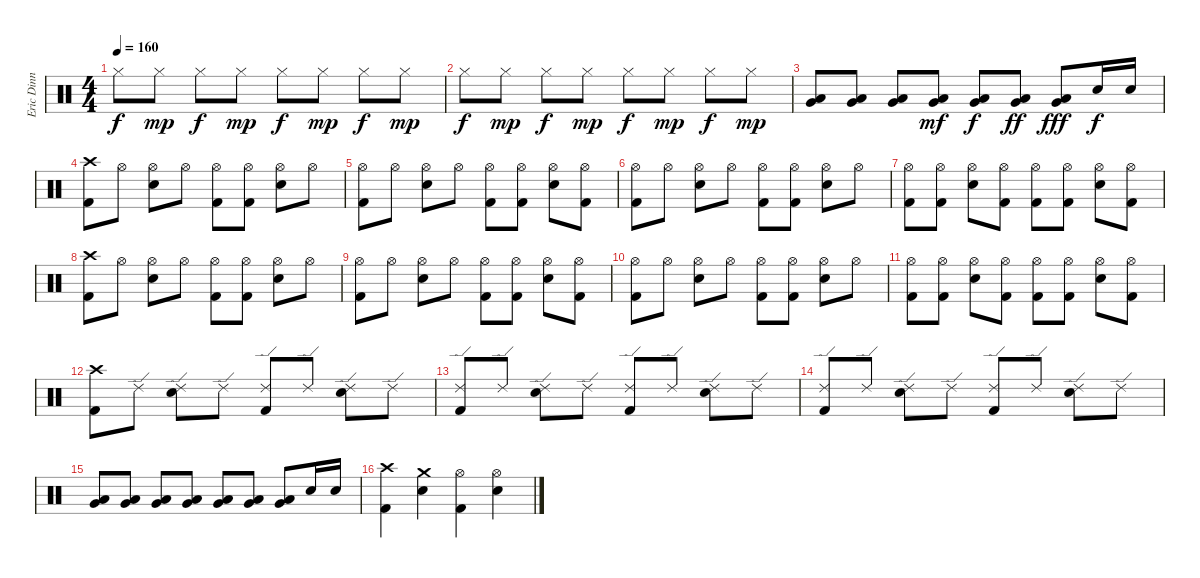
\track ("Eric Dinn" "Eric Dinn") {instrument percussion}
\staff {score}
\articulation defaults
\ts (4 4)
\tempo 160
\clef neutral
\ks c "Hi-Hat (closed)".8{dy f} "Hi-Hat (closed)".8{dy mp} "Hi-Hat (closed)".8{dy f} "Hi-Hat (closed)".8{dy mp} "Hi-Hat (closed)".8{dy f} "Hi-Hat (closed)".8{dy mp} "Hi-Hat (closed)".8{dy f} "Hi-Hat (closed)".8{dy mp}
|
"Hi-Hat (closed)".8{dy f} "Hi-Hat (closed)".8{dy mp} "Hi-Hat (closed)".8{dy f} "Hi-Hat (closed)".8{dy mp} "Hi-Hat (closed)".8{dy f} "Hi-Hat (closed)".8{dy mp} "Hi-Hat (closed)".8{dy f} "Hi-Hat (closed)".8{dy mp} |
("Very Low Tom (hit)" "Low Tom (hit)").8 ("Very Low Tom (hit)" "Low Tom (hit)").8 ("Very Low Tom (hit)" "Low Tom (hit)").8 ("Very Low Tom (hit)" "Low Tom (hit)").8{dy mf} ("Very Low Tom (hit)" "Low Tom (hit)").8{dy f} ("Very Low Tom (hit)" "Low Tom (hit)").8{dy ff} ("Very Low Tom (hit)" "Low Tom (hit)").8{dy fff} "Snare (hit) 2".16{dy f} "Snare (hit) 2".16 |
("Crash high (hit)" "Kick (hit) 2").8 "Hi-Hat (open)".8 ("Hi-Hat (open)" "Snare (hit) 2").8 "Hi-Hat (open)".8 ("Hi-Hat (open)" "Kick (hit) 2").8 ("Hi-Hat (open)" "Kick (hit) 2").8 ("Hi-Hat (open)" "Snare (hit) 2").8 "Hi-Hat (open)".8 |
("Hi-Hat (open)" "Kick (hit) 2").8 "Hi-Hat (open)".8 ("Hi-Hat (open)" "Snare (hit) 2").8 "Hi-Hat (open)".8 ("Hi-Hat (open)" "Kick (hit) 2").8 ("Hi-Hat (open)" "Kick (hit) 2").8 ("Hi-Hat (open)" "Snare (hit) 2").8 ("Hi-Hat (open)" "Kick (hit) 2").8 |
("Hi-Hat (open)" "Kick (hit) 2").8 "Hi-Hat (open)".8 ("Hi-Hat (open)" "Snare (hit) 2").8 "Hi-Hat (open)".8 ("Hi-Hat (open)" "Kick (hit) 2").8 ("Hi-Hat (open)" "Kick (hit) 2").8 ("Hi-Hat (open)" "Snare (hit) 2").8 "Hi-Hat (open)".8 |
("Hi-Hat (open)" "Kick (hit) 2").8 ("Hi-Hat (open)" "Kick (hit) 2").8 ("Hi-Hat (open)" "Snare (hit) 2").8 ("Hi-Hat (open)" "Kick (hit) 2").8 ("Hi-Hat (open)" "Kick (hit) 2").8 ("Hi-Hat (open)" "Kick (hit) 2").8 ("Hi-Hat (open)" "Snare (hit) 2").8 ("Hi-Hat (open)" "Kick (hit) 2").8 |
("Crash high (hit)" "Kick (hit) 2").8 "Hi-Hat (open)".8 ("Hi-Hat (open)" "Snare (hit) 2").8 "Hi-Hat (open)".8 ("Hi-Hat (open)" "Kick (hit) 2").8 ("Hi-Hat (open)" "Kick (hit) 2").8 ("Hi-Hat (open)" "Snare (hit) 2").8 "Hi-Hat (open)".8 |
("Hi-Hat (open)" "Kick (hit) 2").8 "Hi-Hat (open)".8 ("Hi-Hat (open)" "Snare (hit) 2").8 "Hi-Hat (open)".8 ("Hi-Hat (open)" "Kick (hit) 2").8 ("Hi-Hat (open)" "Kick (hit) 2").8 ("Hi-Hat (open)" "Snare (hit) 2").8 ("Hi-Hat (open)" "Kick (hit) 2").8 |
("Hi-Hat (open)" "Kick (hit) 2").8 "Hi-Hat (open)".8 ("Hi-Hat (open)" "Snare (hit) 2").8 "Hi-Hat (open)".8 ("Hi-Hat (open)" "Kick (hit) 2").8 ("Hi-Hat (open)" "Kick (hit) 2").8 ("Hi-Hat (open)" "Snare (hit) 2").8 "Hi-Hat (open)".8 |
("Hi-Hat (open)" "Kick (hit) 2").8 ("Hi-Hat (open)" "Kick (hit) 2").8 ("Hi-Hat (open)" "Snare (hit) 2").8 ("Hi-Hat (open)" "Kick (hit) 2").8 ("Hi-Hat (open)" "Kick (hit) 2").8 ("Hi-Hat (open)" "Kick (hit) 2").8 ("Hi-Hat (open)" "Snare (hit) 2").8 ("Hi-Hat (open)" "Kick (hit) 2").8 |
("Crash high (hit)" "Kick (hit) 2").8 "Ride (edge) 2".8 ("Ride (edge) 2" "Snare (hit) 2").8 "Ride (edge) 2".8 ("Ride (edge) 2" "Kick (hit) 2").8 "Ride (edge) 2".8 ("Ride (edge) 2" "Snare (hit) 2").8 "Ride (edge) 2".8 |
("Ride (edge) 2" "Kick (hit) 2").8 "Ride (edge) 2".8 ("Ride (edge) 2" "Snare (hit) 2").8 "Ride (edge) 2".8 ("Ride (edge) 2" "Kick (hit) 2").8 "Ride (edge) 2".8 ("Ride (edge) 2" "Snare (hit) 2").8 "Ride (edge) 2".8 |
("Ride (edge) 2" "Kick (hit) 2").8 "Ride (edge) 2".8 ("Ride (edge) 2" "Snare (hit) 2").8 "Ride (edge) 2".8 ("Ride (edge) 2" "Kick (hit) 2").8 "Ride (edge) 2".8 ("Ride (edge) 2" "Snare (hit) 2").8 "Ride (edge) 2".8 |
("Very Low Tom (hit)" "Low Tom (hit)").8 ("Very Low Tom (hit)" "Low Tom (hit)").8 ("Very Low Tom (hit)" "Low Tom (hit)").8 ("Very Low Tom (hit)" "Low Tom (hit)").8 ("Very Low Tom (hit)" "Low Tom (hit)").8 ("Very Low Tom (hit)" "Low Tom (hit)").8 ("Very Low Tom (hit)" "Low Tom (hit)").8 "Snare (hit) 2".16 "Snare (hit) 2".16 |
("Crash high (hit)" "Kick (hit) 2").4 ("Crash medium (hit)" "Snare (hit) 2").4 ("Hi-Hat (open)" "Kick (hit) 2").4 ("Hi-Hat (open)" "Snare (hit) 2").4
